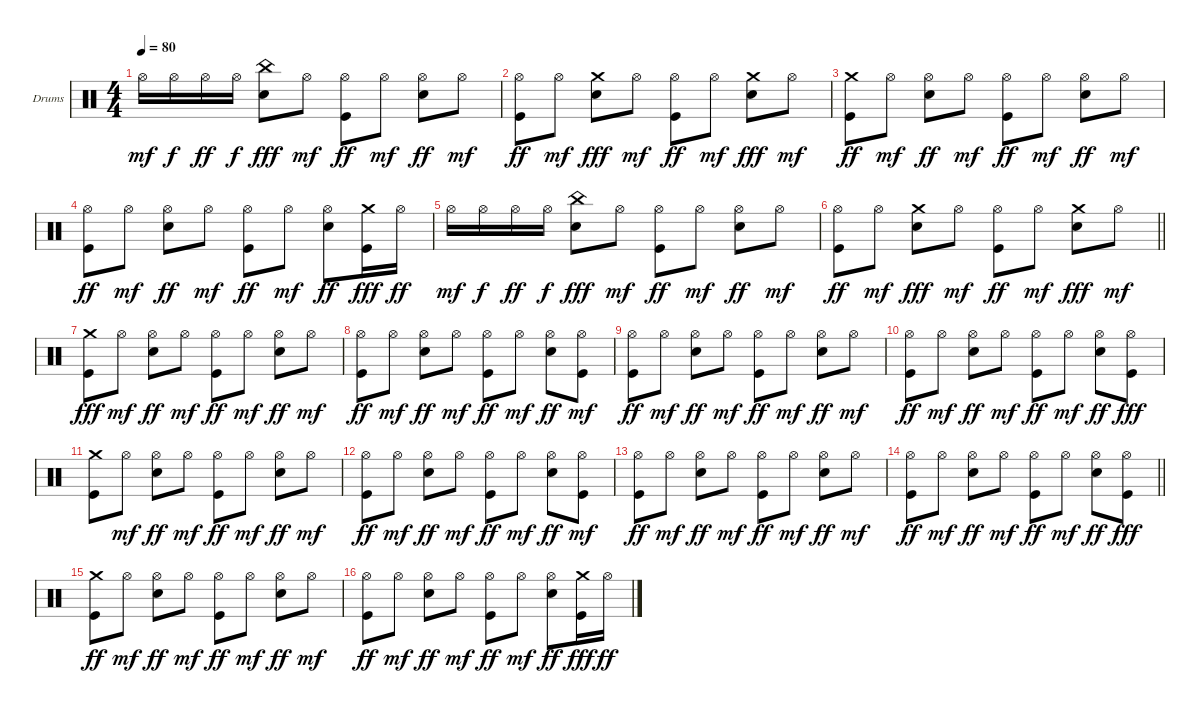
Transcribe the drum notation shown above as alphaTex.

\bracketExtendMode groupsimilarinstruments
\firstSystemTrackNameOrientation horizontal
\otherSystemsTrackNameOrientation horizontal
\track ("Drumkit" "Drums") {instrument percussion}
\staff {score}
\articulation defaults
\ts (4 4)
\tempo 80
\clef neutral
\ks c "Hi-Hat (open)".16{dy mf} "Hi-Hat (open)".16{dy f} "Hi-Hat (open)".16{dy ff} "Hi-Hat (open)".16{dy f}
("China (hit)" "Snare (hit) 2").8{dy fff} "Hi-Hat (open)".8{dy mf} ("Hi-Hat (open)" "Kick (hit)").8{dy ff} "Hi-Hat (open)".8{dy mf} ("Hi-Hat (open)" "Snare (hit) 2").8{dy ff} "Hi-Hat (open)".8{dy mf} |
("Hi-Hat (open)" "Kick (hit)").8{dy ff} "Hi-Hat (open)".8{dy mf} ("Crash medium (hit)" "Snare (hit) 2").8{dy fff} "Hi-Hat (open)".8{dy mf} ("Hi-Hat (open)" "Kick (hit)").8{dy ff} "Hi-Hat (open)".8{dy mf} ("Crash medium (hit)" "Snare (hit) 2").8{dy fff} "Hi-Hat (open)".8{dy mf} |
("Crash medium (hit)" "Kick (hit)").8{dy ff} "Hi-Hat (open)".8{dy mf} ("Hi-Hat (open)" "Snare (hit) 2").8{dy ff} "Hi-Hat (open)".8{dy mf} ("Hi-Hat (open)" "Kick (hit)").8{dy ff} "Hi-Hat (open)".8{dy mf} ("Hi-Hat (open)" "Snare (hit) 2").8{dy ff} "Hi-Hat (open)".8{dy mf} |
("Hi-Hat (open)" "Kick (hit)").8{dy ff} "Hi-Hat (open)".8{dy mf} ("Hi-Hat (open)" "Snare (hit) 2").8{dy ff} "Hi-Hat (open)".8{dy mf} ("Hi-Hat (open)" "Kick (hit)").8{dy ff} "Hi-Hat (open)".8{dy mf} ("Hi-Hat (open)" "Snare (hit) 2").8{dy ff} ("Crash medium (hit)" "Kick (hit)").16{dy fff} "Hi-Hat (open)".16{dy ff} |
"Hi-Hat (open)".16{dy mf} "Hi-Hat (open)".16{dy f} "Hi-Hat (open)".16{dy ff} "Hi-Hat (open)".16{dy f} ("China (hit)" "Snare (hit) 2").8{dy fff} "Hi-Hat (open)".8{dy mf} ("Hi-Hat (open)" "Kick (hit)").8{dy ff} "Hi-Hat (open)".8{dy mf} ("Hi-Hat (open)" "Snare (hit) 2").8{dy ff} "Hi-Hat (open)".8{dy mf} |
\barLineRight lightlight
("Hi-Hat (open)" "Kick (hit)").8{dy ff} "Hi-Hat (open)".8{dy mf} ("Crash medium (hit)" "Snare (hit) 2").8{dy fff} "Hi-Hat (open)".8{dy mf} ("Hi-Hat (open)" "Kick (hit)").8{dy ff} "Hi-Hat (open)".8{dy mf} ("Crash medium (hit)" "Snare (hit) 2").8{dy fff} "Hi-Hat (open)".8{dy mf} |
("Crash medium (hit)" "Kick (hit)").8{dy fff} "Hi-Hat (open)".8{dy mf} ("Hi-Hat (open)" "Snare (hit) 2").8{dy ff} "Hi-Hat (open)".8{dy mf} ("Hi-Hat (open)" "Kick (hit)").8{dy ff} "Hi-Hat (open)".8{dy mf} ("Hi-Hat (open)" "Snare (hit) 2").8{dy ff} "Hi-Hat (open)".8{dy mf} |
("Hi-Hat (open)" "Kick (hit)").8{dy ff} "Hi-Hat (open)".8{dy mf} ("Hi-Hat (open)" "Snare (hit) 2").8{dy ff} "Hi-Hat (open)".8{dy mf} ("Hi-Hat (open)" "Kick (hit)").8{dy ff} "Hi-Hat (open)".8{dy mf} ("Hi-Hat (open)" "Snare (hit) 2").8{dy ff} ("Hi-Hat (open)" "Kick (hit)").8{dy mf} |
("Hi-Hat (open)" "Kick (hit)").8{dy ff} "Hi-Hat (open)".8{dy mf} ("Hi-Hat (open)" "Snare (hit) 2").8{dy ff} "Hi-Hat (open)".8{dy mf} ("Hi-Hat (open)" "Kick (hit)").8{dy ff} "Hi-Hat (open)".8{dy mf} ("Hi-Hat (open)" "Snare (hit) 2").8{dy ff} "Hi-Hat (open)".8{dy mf} |
("Hi-Hat (open)" "Kick (hit)").8{dy ff} "Hi-Hat (open)".8{dy mf} ("Hi-Hat (open)" "Snare (hit) 2").8{dy ff} "Hi-Hat (open)".8{dy mf} ("Hi-Hat (open)" "Kick (hit)").8{dy ff} "Hi-Hat (open)".8{dy mf} ("Hi-Hat (open)" "Snare (hit) 2").8{dy ff} ("Hi-Hat (open)" "Kick (hit)").8{dy fff} |
("Crash medium (hit)" "Kick (hit)").8 "Hi-Hat (open)".8{dy mf} ("Hi-Hat (open)" "Snare (hit) 2").8{dy ff} "Hi-Hat (open)".8{dy mf} ("Hi-Hat (open)" "Kick (hit)").8{dy ff} "Hi-Hat (open)".8{dy mf} ("Hi-Hat (open)" "Snare (hit) 2").8{dy ff} "Hi-Hat (open)".8{dy mf} |
("Hi-Hat (open)" "Kick (hit)").8{dy ff} "Hi-Hat (open)".8{dy mf} ("Hi-Hat (open)" "Snare (hit) 2").8{dy ff} "Hi-Hat (open)".8{dy mf} ("Hi-Hat (open)" "Kick (hit)").8{dy ff} "Hi-Hat (open)".8{dy mf} ("Hi-Hat (open)" "Snare (hit) 2").8{dy ff} ("Hi-Hat (open)" "Kick (hit)").8{dy mf} |
("Hi-Hat (open)" "Kick (hit)").8{dy ff} "Hi-Hat (open)".8{dy mf} ("Hi-Hat (open)" "Snare (hit) 2").8{dy ff} "Hi-Hat (open)".8{dy mf} ("Hi-Hat (open)" "Kick (hit)").8{dy ff} "Hi-Hat (open)".8{dy mf} ("Hi-Hat (open)" "Snare (hit) 2").8{dy ff} "Hi-Hat (open)".8{dy mf} |
\barLineRight lightlight
("Hi-Hat (open)" "Kick (hit)").8{dy ff} "Hi-Hat (open)".8{dy mf} ("Hi-Hat (open)" "Snare (hit) 2").8{dy ff} "Hi-Hat (open)".8{dy mf} ("Hi-Hat (open)" "Kick (hit)").8{dy ff} "Hi-Hat (open)".8{dy mf} ("Hi-Hat (open)" "Snare (hit) 2").8{dy ff} ("Hi-Hat (open)" "Kick (hit)").8{dy fff} |
("Crash medium (hit)" "Kick (hit)").8{dy ff} "Hi-Hat (open)".8{dy mf} ("Hi-Hat (open)" "Snare (hit) 2").8{dy ff} "Hi-Hat (open)".8{dy mf} ("Hi-Hat (open)" "Kick (hit)").8{dy ff} "Hi-Hat (open)".8{dy mf} ("Hi-Hat (open)" "Snare (hit) 2").8{dy ff} "Hi-Hat (open)".8{dy mf} |
("Hi-Hat (open)" "Kick (hit)").8{dy ff} "Hi-Hat (open)".8{dy mf} ("Hi-Hat (open)" "Snare (hit) 2").8{dy ff} "Hi-Hat (open)".8{dy mf} ("Hi-Hat (open)" "Kick (hit)").8{dy ff} "Hi-Hat (open)".8{dy mf} ("Hi-Hat (open)" "Snare (hit) 2").8{dy ff} ("Crash medium (hit)" "Kick (hit)").16{dy fff} "Hi-Hat (open)".16{dy ff}
